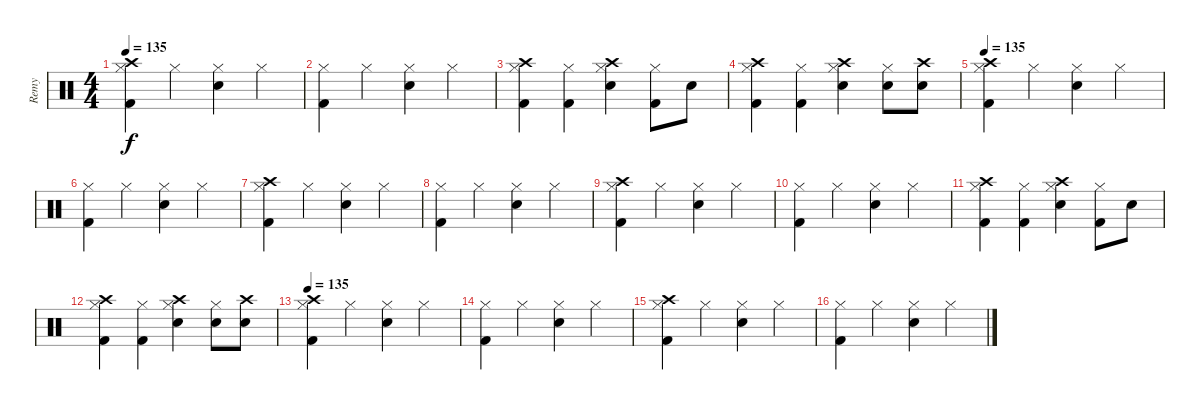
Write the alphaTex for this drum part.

\track ("Remy" "Remy") {instrument percussion}
\staff {score}
\articulation defaults
\ts (4 4)
\tempo 135
\clef neutral
\ks c
("Crash high (hit)" "Hi-Hat (closed)" "Kick (hit) 2").4{dy f} "Hi-Hat (closed)".4 ("Snare (hit) 2" "Hi-Hat (closed)").4 "Hi-Hat (closed)".4 |
("Hi-Hat (closed)" "Kick (hit) 2").4 "Hi-Hat (closed)".4 ("Snare (hit) 2" "Hi-Hat (closed)").4 "Hi-Hat (closed)".4 |
("Crash high (hit)" "Hi-Hat (closed)" "Kick (hit) 2").4 ("Hi-Hat (closed)" "Kick (hit) 2").4 ("Crash high (hit)" "Snare (hit) 2" "Hi-Hat (closed)").4 ("Hi-Hat (closed)" "Kick (hit) 2").8 "Snare (hit) 2".8 |
("Crash high (hit)" "Hi-Hat (closed)" "Kick (hit) 2").4 ("Hi-Hat (closed)" "Kick (hit) 2").4 ("Crash high (hit)" "Snare (hit) 2" "Hi-Hat (closed)").4 ("Snare (hit) 2" "Hi-Hat (closed)").8 ("Crash high (hit)" "Snare (hit) 2").8 |
\tempo 135
("Crash high (hit)" "Hi-Hat (closed)" "Kick (hit) 2").4 "Hi-Hat (closed)".4 ("Snare (hit) 2" "Hi-Hat (closed)").4 "Hi-Hat (closed)".4 |
("Hi-Hat (closed)" "Kick (hit) 2").4 "Hi-Hat (closed)".4 ("Snare (hit) 2" "Hi-Hat (closed)").4 "Hi-Hat (closed)".4 |
("Crash high (hit)" "Hi-Hat (closed)" "Kick (hit) 2").4 "Hi-Hat (closed)".4 ("Snare (hit) 2" "Hi-Hat (closed)").4 "Hi-Hat (closed)".4 |
("Hi-Hat (closed)" "Kick (hit) 2").4 "Hi-Hat (closed)".4 ("Snare (hit) 2" "Hi-Hat (closed)").4 "Hi-Hat (closed)".4 |
("Crash high (hit)" "Hi-Hat (closed)" "Kick (hit) 2").4 "Hi-Hat (closed)".4 ("Snare (hit) 2" "Hi-Hat (closed)").4 "Hi-Hat (closed)".4 |
("Hi-Hat (closed)" "Kick (hit) 2").4 "Hi-Hat (closed)".4 ("Snare (hit) 2" "Hi-Hat (closed)").4 "Hi-Hat (closed)".4 |
("Crash high (hit)" "Hi-Hat (closed)" "Kick (hit) 2").4 ("Hi-Hat (closed)" "Kick (hit) 2").4 ("Crash high (hit)" "Snare (hit) 2" "Hi-Hat (closed)").4 ("Hi-Hat (closed)" "Kick (hit) 2").8 "Snare (hit) 2".8 |
("Crash high (hit)" "Hi-Hat (closed)" "Kick (hit) 2").4 ("Hi-Hat (closed)" "Kick (hit) 2").4 ("Crash high (hit)" "Snare (hit) 2" "Hi-Hat (closed)").4 ("Snare (hit) 2" "Hi-Hat (closed)").8 ("Crash high (hit)" "Snare (hit) 2").8 |
\tempo 135
("Crash high (hit)" "Hi-Hat (closed)" "Kick (hit) 2").4 "Hi-Hat (closed)".4 ("Snare (hit) 2" "Hi-Hat (closed)").4 "Hi-Hat (closed)".4 |
("Hi-Hat (closed)" "Kick (hit) 2").4 "Hi-Hat (closed)".4 ("Snare (hit) 2" "Hi-Hat (closed)").4 "Hi-Hat (closed)".4 |
("Crash high (hit)" "Hi-Hat (closed)" "Kick (hit) 2").4 "Hi-Hat (closed)".4 ("Snare (hit) 2" "Hi-Hat (closed)").4 "Hi-Hat (closed)".4 |
("Hi-Hat (closed)" "Kick (hit) 2").4 "Hi-Hat (closed)".4 ("Snare (hit) 2" "Hi-Hat (closed)").4 "Hi-Hat (closed)".4
